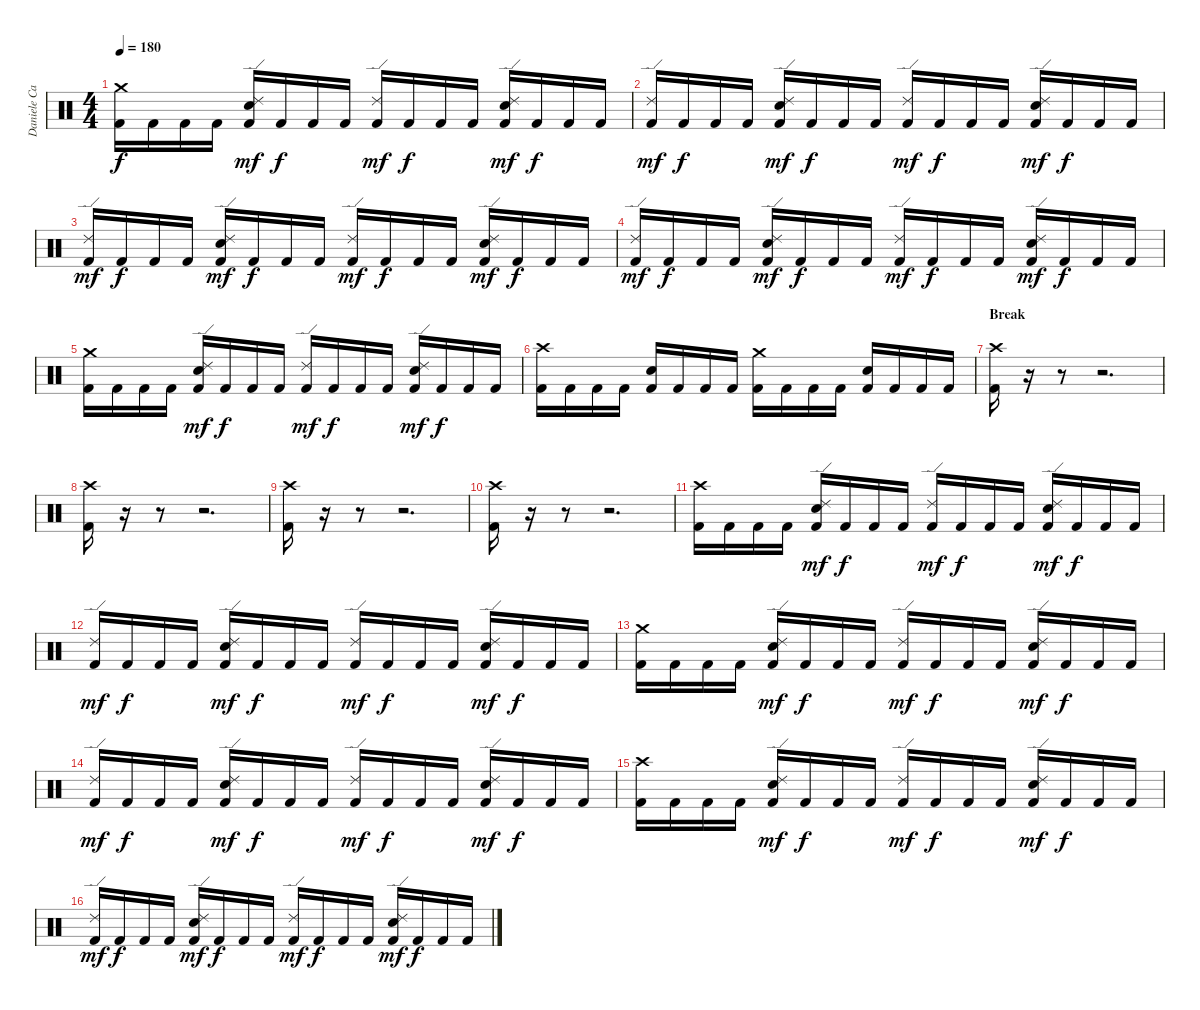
\track ("Daniele Carbonera" "Daniele Ca") {instrument percussion}
\staff {score}
\articulation defaults
\ts (4 4)
\tempo 180
\clef neutral
\ks c
("Kick (hit) 2" "Crash medium (hit)").16{dy f} "Kick (hit) 2".16 "Kick (hit) 2".16 "Kick (hit) 2".16 ("Kick (hit) 2" "Ride (edge) 2" "Snare (hit) 2").16{dy mf} "Kick (hit) 2".16{dy f} "Kick (hit) 2".16 "Kick (hit) 2".16 ("Kick (hit) 2" "Ride (edge) 2").16{dy mf} "Kick (hit) 2".16{dy f} "Kick (hit) 2".16 "Kick (hit) 2".16 ("Kick (hit) 2" "Ride (edge) 2" "Snare (hit) 2").16{dy mf} "Kick (hit) 2".16{dy f} "Kick (hit) 2".16 "Kick (hit) 2".16 |
("Kick (hit) 2" "Ride (edge) 2").16{dy mf} "Kick (hit) 2".16{dy f} "Kick (hit) 2".16 "Kick (hit) 2".16 ("Kick (hit) 2" "Ride (edge) 2" "Snare (hit) 2").16{dy mf} "Kick (hit) 2".16{dy f} "Kick (hit) 2".16 "Kick (hit) 2".16 ("Kick (hit) 2" "Ride (edge) 2").16{dy mf} "Kick (hit) 2".16{dy f} "Kick (hit) 2".16 "Kick (hit) 2".16 ("Kick (hit) 2" "Ride (edge) 2" "Snare (hit) 2").16{dy mf} "Kick (hit) 2".16{dy f} "Kick (hit) 2".16 "Kick (hit) 2".16 |
("Kick (hit) 2" "Ride (edge) 2").16{dy mf} "Kick (hit) 2".16{dy f} "Kick (hit) 2".16 "Kick (hit) 2".16 ("Kick (hit) 2" "Ride (edge) 2" "Snare (hit) 2").16{dy mf} "Kick (hit) 2".16{dy f} "Kick (hit) 2".16 "Kick (hit) 2".16 ("Kick (hit) 2" "Ride (edge) 2").16{dy mf} "Kick (hit) 2".16{dy f} "Kick (hit) 2".16 "Kick (hit) 2".16 ("Kick (hit) 2" "Ride (edge) 2" "Snare (hit) 2").16{dy mf} "Kick (hit) 2".16{dy f} "Kick (hit) 2".16 "Kick (hit) 2".16 |
("Kick (hit) 2" "Ride (edge) 2").16{dy mf} "Kick (hit) 2".16{dy f} "Kick (hit) 2".16 "Kick (hit) 2".16 ("Kick (hit) 2" "Ride (edge) 2" "Snare (hit) 2").16{dy mf} "Kick (hit) 2".16{dy f} "Kick (hit) 2".16 "Kick (hit) 2".16 ("Kick (hit) 2" "Ride (edge) 2").16{dy mf} "Kick (hit) 2".16{dy f} "Kick (hit) 2".16 "Kick (hit) 2".16 ("Kick (hit) 2" "Ride (edge) 2" "Snare (hit) 2").16{dy mf} "Kick (hit) 2".16{dy f} "Kick (hit) 2".16 "Kick (hit) 2".16 |
("Kick (hit) 2" "Crash medium (hit)").16 "Kick (hit) 2".16 "Kick (hit) 2".16 "Kick (hit) 2".16 ("Kick (hit) 2" "Ride (edge) 2" "Snare (hit) 2").16{dy mf} "Kick (hit) 2".16{dy f} "Kick (hit) 2".16 "Kick (hit) 2".16 ("Kick (hit) 2" "Ride (edge) 2").16{dy mf} "Kick (hit) 2".16{dy f} "Kick (hit) 2".16 "Kick (hit) 2".16 ("Kick (hit) 2" "Ride (edge) 2" "Snare (hit) 2").16{dy mf} "Kick (hit) 2".16{dy f} "Kick (hit) 2".16 "Kick (hit) 2".16 |
("Kick (hit) 2" "Crash high (hit)").16 "Kick (hit) 2".16 "Kick (hit) 2".16 "Kick (hit) 2".16 ("Kick (hit) 2" "Snare (hit) 2").16 "Kick (hit) 2".16 "Kick (hit) 2".16 "Kick (hit) 2".16 ("Kick (hit) 2" "Crash medium (hit)").16 "Kick (hit) 2".16 "Kick (hit) 2".16 "Kick (hit) 2".16 ("Kick (hit) 2" "Snare (hit) 2").16 "Kick (hit) 2".16 "Kick (hit) 2".16 "Kick (hit) 2".16 |
\section ("" "Break")
("Kick (hit) 2" "Crash high (hit)").16 r.16 r.8 r.2{d} |
("Kick (hit) 2" "Crash high (hit)").16 r.16 r.8 r.2{d} |
("Kick (hit) 2" "Crash high (hit)").16 r.16 r.8 r.2{d} |
("Kick (hit) 2" "Crash high (hit)").16 r.16 r.8 r.2{d} |
("Kick (hit) 2" "Crash high (hit)").16 "Kick (hit) 2".16 "Kick (hit) 2".16 "Kick (hit) 2".16 ("Kick (hit) 2" "Ride (edge) 2" "Snare (hit) 2").16{dy mf} "Kick (hit) 2".16{dy f} "Kick (hit) 2".16 "Kick (hit) 2".16 ("Kick (hit) 2" "Ride (edge) 2").16{dy mf} "Kick (hit) 2".16{dy f} "Kick (hit) 2".16 "Kick (hit) 2".16 ("Kick (hit) 2" "Ride (edge) 2" "Snare (hit) 2").16{dy mf} "Kick (hit) 2".16{dy f} "Kick (hit) 2".16 "Kick (hit) 2".16 |
("Kick (hit) 2" "Ride (edge) 2").16{dy mf} "Kick (hit) 2".16{dy f} "Kick (hit) 2".16 "Kick (hit) 2".16 ("Kick (hit) 2" "Ride (edge) 2" "Snare (hit) 2").16{dy mf} "Kick (hit) 2".16{dy f} "Kick (hit) 2".16 "Kick (hit) 2".16 ("Kick (hit) 2" "Ride (edge) 2").16{dy mf} "Kick (hit) 2".16{dy f} "Kick (hit) 2".16 "Kick (hit) 2".16 ("Kick (hit) 2" "Ride (edge) 2" "Snare (hit) 2").16{dy mf} "Kick (hit) 2".16{dy f} "Kick (hit) 2".16 "Kick (hit) 2".16 |
("Kick (hit) 2" "Crash medium (hit)").16 "Kick (hit) 2".16 "Kick (hit) 2".16 "Kick (hit) 2".16 ("Kick (hit) 2" "Ride (edge) 2" "Snare (hit) 2").16{dy mf} "Kick (hit) 2".16{dy f} "Kick (hit) 2".16 "Kick (hit) 2".16 ("Kick (hit) 2" "Ride (edge) 2").16{dy mf} "Kick (hit) 2".16{dy f} "Kick (hit) 2".16 "Kick (hit) 2".16 ("Kick (hit) 2" "Ride (edge) 2" "Snare (hit) 2").16{dy mf} "Kick (hit) 2".16{dy f} "Kick (hit) 2".16 "Kick (hit) 2".16 |
("Kick (hit) 2" "Ride (edge) 2").16{dy mf} "Kick (hit) 2".16{dy f} "Kick (hit) 2".16 "Kick (hit) 2".16 ("Kick (hit) 2" "Ride (edge) 2" "Snare (hit) 2").16{dy mf} "Kick (hit) 2".16{dy f} "Kick (hit) 2".16 "Kick (hit) 2".16 ("Kick (hit) 2" "Ride (edge) 2").16{dy mf} "Kick (hit) 2".16{dy f} "Kick (hit) 2".16 "Kick (hit) 2".16 ("Kick (hit) 2" "Ride (edge) 2" "Snare (hit) 2").16{dy mf} "Kick (hit) 2".16{dy f} "Kick (hit) 2".16 "Kick (hit) 2".16 |
("Kick (hit) 2" "Crash high (hit)").16 "Kick (hit) 2".16 "Kick (hit) 2".16 "Kick (hit) 2".16 ("Kick (hit) 2" "Ride (edge) 2" "Snare (hit) 2").16{dy mf} "Kick (hit) 2".16{dy f} "Kick (hit) 2".16 "Kick (hit) 2".16 ("Kick (hit) 2" "Ride (edge) 2").16{dy mf} "Kick (hit) 2".16{dy f} "Kick (hit) 2".16 "Kick (hit) 2".16 ("Kick (hit) 2" "Ride (edge) 2" "Snare (hit) 2").16{dy mf} "Kick (hit) 2".16{dy f} "Kick (hit) 2".16 "Kick (hit) 2".16 |
("Kick (hit) 2" "Ride (edge) 2").16{dy mf} "Kick (hit) 2".16{dy f} "Kick (hit) 2".16 "Kick (hit) 2".16 ("Kick (hit) 2" "Ride (edge) 2" "Snare (hit) 2").16{dy mf} "Kick (hit) 2".16{dy f} "Kick (hit) 2".16 "Kick (hit) 2".16 ("Kick (hit) 2" "Ride (edge) 2").16{dy mf} "Kick (hit) 2".16{dy f} "Kick (hit) 2".16 "Kick (hit) 2".16 ("Kick (hit) 2" "Ride (edge) 2" "Snare (hit) 2").16{dy mf} "Kick (hit) 2".16{dy f} "Kick (hit) 2".16 "Kick (hit) 2".16
